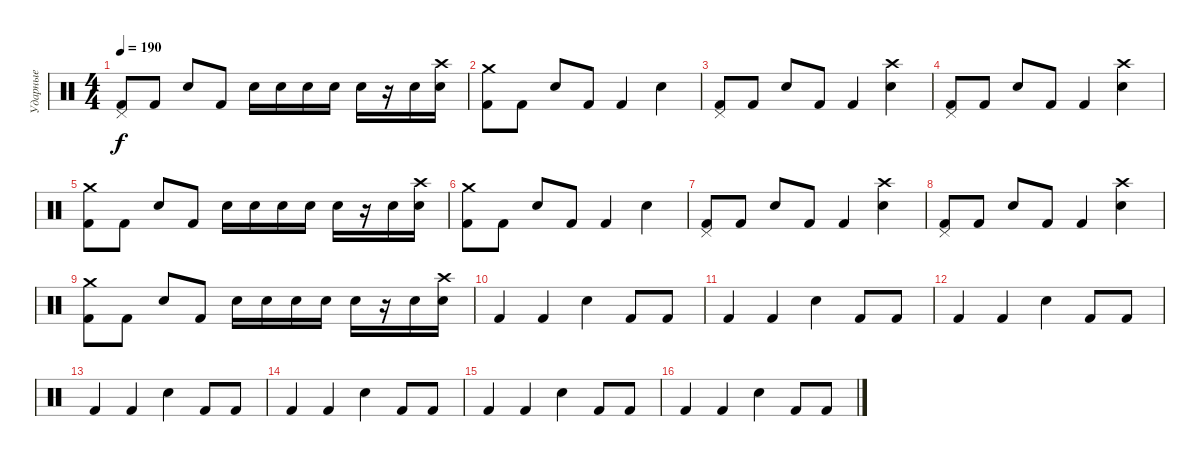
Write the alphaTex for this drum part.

\track ("Ударные" "Ударные") {instrument percussion}
\staff {score}
\articulation defaults
\ts (4 4)
\tempo 190
\clef neutral
\ks c
("Pedal Hi-Hat (hit)" "Kick (hit) 2").8{dy f} "Kick (hit) 2".8 "Electric Snare (hit)".8 "Kick (hit) 2".8 "Electric Snare (hit)".16 "Electric Snare (hit)".16 "Electric Snare (hit)".16 "Electric Snare (hit)".16 "Electric Snare (hit)".16 r.16 "Electric Snare (hit)".16 ("Electric Snare (hit)" "Crash high (hit)").16 |
("Crash medium (hit)" "Kick (hit) 2").8 "Kick (hit) 2".8 "Electric Snare (hit)".8 "Kick (hit) 2".8 "Kick (hit) 2".4 "Electric Snare (hit)".4 |
("Pedal Hi-Hat (hit)" "Kick (hit) 2").8 "Kick (hit) 2".8 "Electric Snare (hit)".8 "Kick (hit) 2".8 "Kick (hit) 2".4 ("Crash high (hit)" "Electric Snare (hit)").4 |
("Pedal Hi-Hat (hit)" "Kick (hit) 2").8 "Kick (hit) 2".8 "Electric Snare (hit)".8 "Kick (hit) 2".8 "Kick (hit) 2".4 ("Crash high (hit)" "Electric Snare (hit)").4 |
("Crash medium (hit)" "Kick (hit) 2").8 "Kick (hit) 2".8 "Electric Snare (hit)".8 "Kick (hit) 2".8 "Electric Snare (hit)".16 "Electric Snare (hit)".16 "Electric Snare (hit)".16 "Electric Snare (hit)".16 "Electric Snare (hit)".16 r.16 "Electric Snare (hit)".16 ("Electric Snare (hit)" "Crash high (hit)").16 |
("Crash medium (hit)" "Kick (hit) 2").8 "Kick (hit) 2".8 "Electric Snare (hit)".8 "Kick (hit) 2".8 "Kick (hit) 2".4 "Electric Snare (hit)".4 |
("Pedal Hi-Hat (hit)" "Kick (hit) 2").8 "Kick (hit) 2".8 "Electric Snare (hit)".8 "Kick (hit) 2".8 "Kick (hit) 2".4 ("Crash high (hit)" "Electric Snare (hit)").4 |
("Pedal Hi-Hat (hit)" "Kick (hit) 2").8 "Kick (hit) 2".8 "Electric Snare (hit)".8 "Kick (hit) 2".8 "Kick (hit) 2".4 ("Crash high (hit)" "Electric Snare (hit)").4 |
("Crash medium (hit)" "Kick (hit) 2").8 "Kick (hit) 2".8 "Electric Snare (hit)".8 "Kick (hit) 2".8 "Electric Snare (hit)".16 "Electric Snare (hit)".16 "Electric Snare (hit)".16 "Electric Snare (hit)".16 "Electric Snare (hit)".16 r.16 "Electric Snare (hit)".16 ("Electric Snare (hit)" "Crash high (hit)").16 |
"Kick (hit) 2".4 "Kick (hit) 2".4 "Electric Snare (hit)".4 "Kick (hit) 2".8 "Kick (hit) 2".8 |
"Kick (hit) 2".4 "Kick (hit) 2".4 "Electric Snare (hit)".4 "Kick (hit) 2".8 "Kick (hit) 2".8 |
"Kick (hit) 2".4 "Kick (hit) 2".4 "Electric Snare (hit)".4 "Kick (hit) 2".8 "Kick (hit) 2".8 |
"Kick (hit) 2".4 "Kick (hit) 2".4 "Electric Snare (hit)".4 "Kick (hit) 2".8 "Kick (hit) 2".8 |
"Kick (hit) 2".4 "Kick (hit) 2".4 "Electric Snare (hit)".4 "Kick (hit) 2".8 "Kick (hit) 2".8 |
"Kick (hit) 2".4 "Kick (hit) 2".4 "Electric Snare (hit)".4 "Kick (hit) 2".8 "Kick (hit) 2".8 |
"Kick (hit) 2".4 "Kick (hit) 2".4 "Electric Snare (hit)".4 "Kick (hit) 2".8 "Kick (hit) 2".8
